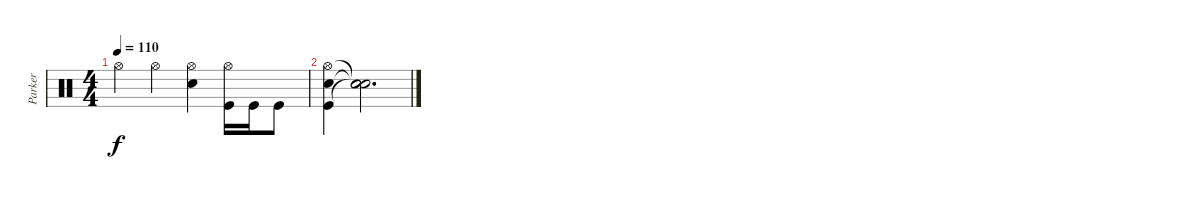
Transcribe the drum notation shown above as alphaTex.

\track ("Parker" "Parker") {instrument percussion}
\staff {score}
\articulation defaults
\ts (4 4)
\tempo 110
\clef neutral
\ks c "Hi-Hat (open)".4{dy f} "Hi-Hat (open)".4
("Hi-Hat (open)" "Snare (hit) 2").4 ("Hi-Hat (open)" "Kick (hit)").16 "Kick (hit)".16 "Kick (hit)".8 |
("Hi-Hat (open)" "Snare (hit) 2" "Kick (hit)").4 ("Snare (hit)"{t} "Snare (hit)"{t} "Snare (hit)"{t}).2{d}
